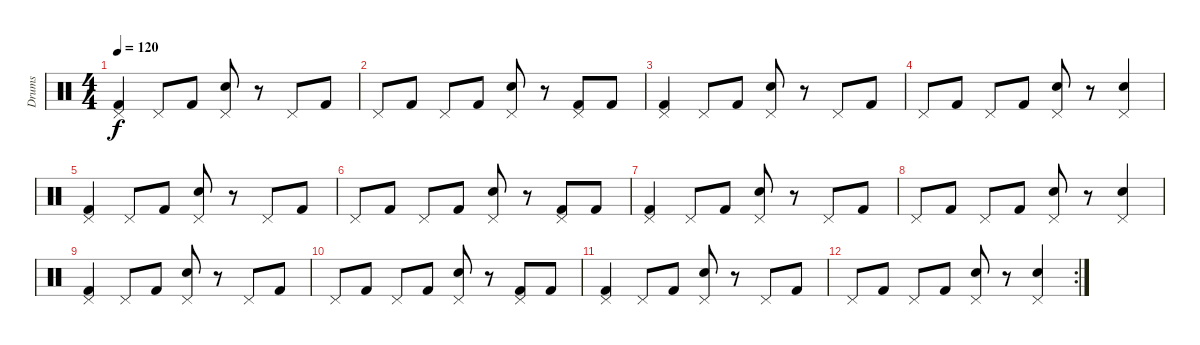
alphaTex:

\track ("Drums" "Drums") {instrument percussion}
\staff {score}
\articulation defaults
\ts (4 4)
\tempo 120
\clef neutral
\ks c
("Pedal Hi-Hat (hit)" "Kick (hit) 2").4{dy f} "Pedal Hi-Hat (hit)".8 "Kick (hit) 2".8 ("Electric Snare (hit)" "Pedal Hi-Hat (hit)").8 r.8 "Pedal Hi-Hat (hit)".8 "Kick (hit) 2".8 |
"Pedal Hi-Hat (hit)".8 "Kick (hit) 2".8 "Pedal Hi-Hat (hit)".8 "Kick (hit) 2".8 ("Electric Snare (hit)" "Pedal Hi-Hat (hit)").8 r.8 ("Pedal Hi-Hat (hit)" "Kick (hit) 2").8 "Kick (hit) 2".8 |
("Pedal Hi-Hat (hit)" "Kick (hit) 2").4 "Pedal Hi-Hat (hit)".8 "Kick (hit) 2".8 ("Electric Snare (hit)" "Pedal Hi-Hat (hit)").8 r.8 "Pedal Hi-Hat (hit)".8 "Kick (hit) 2".8 |
"Pedal Hi-Hat (hit)".8 "Kick (hit) 2".8 "Pedal Hi-Hat (hit)".8 "Kick (hit) 2".8 ("Electric Snare (hit)" "Pedal Hi-Hat (hit)").8 r.8 ("Electric Snare (hit)" "Pedal Hi-Hat (hit)").4 |
("Pedal Hi-Hat (hit)" "Kick (hit) 2").4 "Pedal Hi-Hat (hit)".8 "Kick (hit) 2".8 ("Electric Snare (hit)" "Pedal Hi-Hat (hit)").8 r.8 "Pedal Hi-Hat (hit)".8 "Kick (hit) 2".8 |
"Pedal Hi-Hat (hit)".8 "Kick (hit) 2".8 "Pedal Hi-Hat (hit)".8 "Kick (hit) 2".8 ("Electric Snare (hit)" "Pedal Hi-Hat (hit)").8 r.8 ("Pedal Hi-Hat (hit)" "Kick (hit) 2").8 "Kick (hit) 2".8 |
("Pedal Hi-Hat (hit)" "Kick (hit) 2").4 "Pedal Hi-Hat (hit)".8 "Kick (hit) 2".8 ("Electric Snare (hit)" "Pedal Hi-Hat (hit)").8 r.8 "Pedal Hi-Hat (hit)".8 "Kick (hit) 2".8 |
"Pedal Hi-Hat (hit)".8 "Kick (hit) 2".8 "Pedal Hi-Hat (hit)".8 "Kick (hit) 2".8 ("Electric Snare (hit)" "Pedal Hi-Hat (hit)").8 r.8 ("Electric Snare (hit)" "Pedal Hi-Hat (hit)").4 |
("Pedal Hi-Hat (hit)" "Kick (hit) 2").4 "Pedal Hi-Hat (hit)".8 "Kick (hit) 2".8 ("Electric Snare (hit)" "Pedal Hi-Hat (hit)").8 r.8 "Pedal Hi-Hat (hit)".8 "Kick (hit) 2".8 |
"Pedal Hi-Hat (hit)".8 "Kick (hit) 2".8 "Pedal Hi-Hat (hit)".8 "Kick (hit) 2".8 ("Electric Snare (hit)" "Pedal Hi-Hat (hit)").8 r.8 ("Pedal Hi-Hat (hit)" "Kick (hit) 2").8 "Kick (hit) 2".8 |
("Pedal Hi-Hat (hit)" "Kick (hit) 2").4 "Pedal Hi-Hat (hit)".8 "Kick (hit) 2".8 ("Electric Snare (hit)" "Pedal Hi-Hat (hit)").8 r.8 "Pedal Hi-Hat (hit)".8 "Kick (hit) 2".8 |
\rc 2 "Pedal Hi-Hat (hit)".8 "Kick (hit) 2".8 "Pedal Hi-Hat (hit)".8 "Kick (hit) 2".8
("Electric Snare (hit)" "Pedal Hi-Hat (hit)").8 r.8 ("Electric Snare (hit)" "Pedal Hi-Hat (hit)").4
